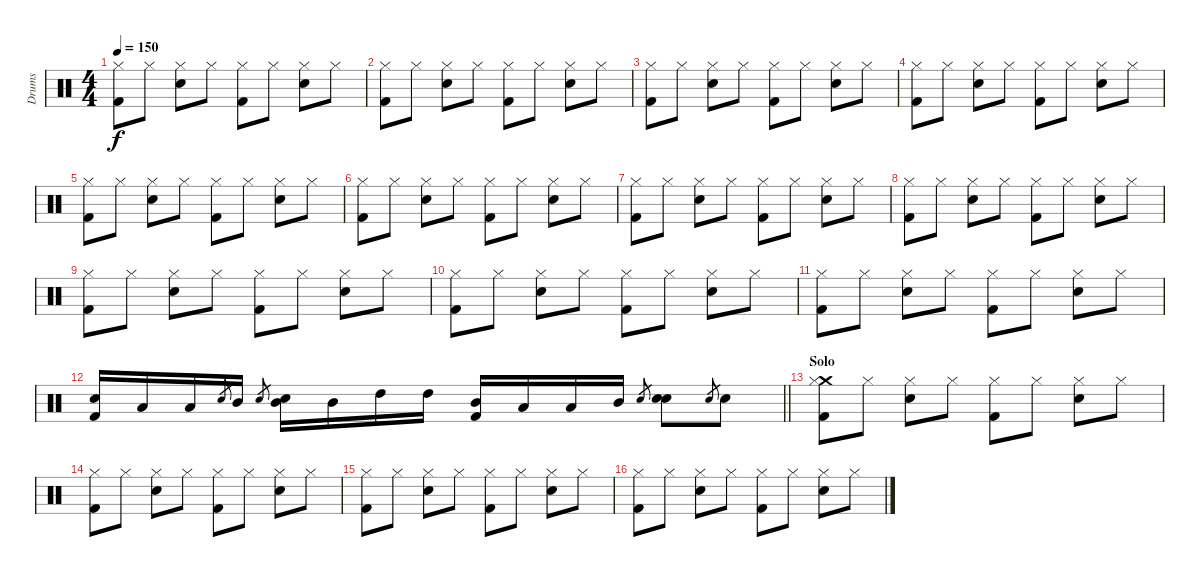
\track ("Drums" "Drums") {instrument percussion}
\staff {score}
\articulation defaults
\ts (4 4)
\tempo 150
\clef neutral
\ks c
("Kick (hit) 2" "Hi-Hat (closed)").8{dy f} "Hi-Hat (closed)".8 ("Snare (hit) 2" "Hi-Hat (closed)").8 "Hi-Hat (closed)".8 ("Kick (hit) 2" "Hi-Hat (closed)").8 "Hi-Hat (closed)".8 ("Snare (hit) 2" "Hi-Hat (closed)").8 "Hi-Hat (closed)".8 |
("Kick (hit) 2" "Hi-Hat (closed)").8 "Hi-Hat (closed)".8 ("Snare (hit) 2" "Hi-Hat (closed)").8 "Hi-Hat (closed)".8 ("Kick (hit) 2" "Hi-Hat (closed)").8 "Hi-Hat (closed)".8 ("Snare (hit) 2" "Hi-Hat (closed)").8 "Hi-Hat (closed)".8 |
("Kick (hit) 2" "Hi-Hat (closed)").8 "Hi-Hat (closed)".8 ("Snare (hit) 2" "Hi-Hat (closed)").8 "Hi-Hat (closed)".8 ("Kick (hit) 2" "Hi-Hat (closed)").8 "Hi-Hat (closed)".8 ("Snare (hit) 2" "Hi-Hat (closed)").8 "Hi-Hat (closed)".8 |
("Kick (hit) 2" "Hi-Hat (closed)").8 "Hi-Hat (closed)".8 ("Snare (hit) 2" "Hi-Hat (closed)").8 "Hi-Hat (closed)".8 ("Kick (hit) 2" "Hi-Hat (closed)").8 "Hi-Hat (closed)".8 ("Snare (hit) 2" "Hi-Hat (closed)").8 "Hi-Hat (closed)".8 |
("Kick (hit) 2" "Hi-Hat (closed)").8 "Hi-Hat (closed)".8 ("Snare (hit) 2" "Hi-Hat (closed)").8 "Hi-Hat (closed)".8 ("Kick (hit) 2" "Hi-Hat (closed)").8 "Hi-Hat (closed)".8 ("Snare (hit) 2" "Hi-Hat (closed)").8 "Hi-Hat (closed)".8 |
("Kick (hit) 2" "Hi-Hat (closed)").8 "Hi-Hat (closed)".8 ("Snare (hit) 2" "Hi-Hat (closed)").8 "Hi-Hat (closed)".8 ("Kick (hit) 2" "Hi-Hat (closed)").8 "Hi-Hat (closed)".8 ("Snare (hit) 2" "Hi-Hat (closed)").8 "Hi-Hat (closed)".8 |
("Kick (hit) 2" "Hi-Hat (closed)").8 "Hi-Hat (closed)".8 ("Snare (hit) 2" "Hi-Hat (closed)").8 "Hi-Hat (closed)".8 ("Kick (hit) 2" "Hi-Hat (closed)").8 "Hi-Hat (closed)".8 ("Snare (hit) 2" "Hi-Hat (closed)").8 "Hi-Hat (closed)".8 |
("Kick (hit) 2" "Hi-Hat (closed)").8 "Hi-Hat (closed)".8 ("Snare (hit) 2" "Hi-Hat (closed)").8 "Hi-Hat (closed)".8 ("Kick (hit) 2" "Hi-Hat (closed)").8 "Hi-Hat (closed)".8 ("Snare (hit) 2" "Hi-Hat (closed)").8 "Hi-Hat (closed)".8 |
("Kick (hit) 2" "Hi-Hat (closed)").8 "Hi-Hat (closed)".8 ("Snare (hit) 2" "Hi-Hat (closed)").8 "Hi-Hat (closed)".8 ("Kick (hit) 2" "Hi-Hat (closed)").8 "Hi-Hat (closed)".8 ("Snare (hit) 2" "Hi-Hat (closed)").8 "Hi-Hat (closed)".8 |
("Kick (hit) 2" "Hi-Hat (closed)").8 "Hi-Hat (closed)".8 ("Snare (hit) 2" "Hi-Hat (closed)").8 "Hi-Hat (closed)".8 ("Kick (hit) 2" "Hi-Hat (closed)").8 "Hi-Hat (closed)".8 ("Snare (hit) 2" "Hi-Hat (closed)").8 "Hi-Hat (closed)".8 |
("Kick (hit) 2" "Hi-Hat (closed)").8 "Hi-Hat (closed)".8 ("Snare (hit) 2" "Hi-Hat (closed)").8 "Hi-Hat (closed)".8 ("Kick (hit) 2" "Hi-Hat (closed)").8 "Hi-Hat (closed)".8 ("Snare (hit) 2" "Hi-Hat (closed)").8 "Hi-Hat (closed)".8 |
\barLineRight lightlight
("Electric Snare (hit)" "Kick (hit) 2").16 "Low Tom (hit)".16 "Low Tom (hit)".16 "Snare (hit) 2".8{gr} "Mid Tom (hit)".16 "Electric Snare (hit)".8{gr} ("Mid Tom (hit)" "Snare (hit) 2").16 "Mid Tom (hit)".16 "High Tom (hit)".16 "High Tom (hit)".16 ("Mid Tom (hit)" "Kick (hit) 2").16 "Low Tom (hit)".16 "Low Tom (hit)".16 "Mid Tom (hit)".16 "Snare (hit) 2".8{gr} ("Snare (hit) 2" "Snare (hit) 2").8 "Electric Snare (hit)".8{gr} "Electric Snare (hit)".8 |
\section ("" "Solo")
("Crash medium (hit)" "Kick (hit) 2" "Hi-Hat (closed)").8 "Hi-Hat (closed)".8 ("Snare (hit) 2" "Hi-Hat (closed)").8 "Hi-Hat (closed)".8 ("Kick (hit) 2" "Hi-Hat (closed)").8 "Hi-Hat (closed)".8 ("Snare (hit) 2" "Hi-Hat (closed)").8 "Hi-Hat (closed)".8 |
("Kick (hit) 2" "Hi-Hat (closed)").8 "Hi-Hat (closed)".8 ("Snare (hit) 2" "Hi-Hat (closed)").8 "Hi-Hat (closed)".8 ("Kick (hit) 2" "Hi-Hat (closed)").8 "Hi-Hat (closed)".8 ("Snare (hit) 2" "Hi-Hat (closed)").8 "Hi-Hat (closed)".8 |
("Kick (hit) 2" "Hi-Hat (closed)").8 "Hi-Hat (closed)".8 ("Snare (hit) 2" "Hi-Hat (closed)").8 "Hi-Hat (closed)".8 ("Kick (hit) 2" "Hi-Hat (closed)").8 "Hi-Hat (closed)".8 ("Snare (hit) 2" "Hi-Hat (closed)").8 "Hi-Hat (closed)".8 |
("Kick (hit) 2" "Hi-Hat (closed)").8 "Hi-Hat (closed)".8 ("Snare (hit) 2" "Hi-Hat (closed)").8 "Hi-Hat (closed)".8 ("Kick (hit) 2" "Hi-Hat (closed)").8 "Hi-Hat (closed)".8 ("Snare (hit) 2" "Hi-Hat (closed)").8 "Hi-Hat (closed)".8
